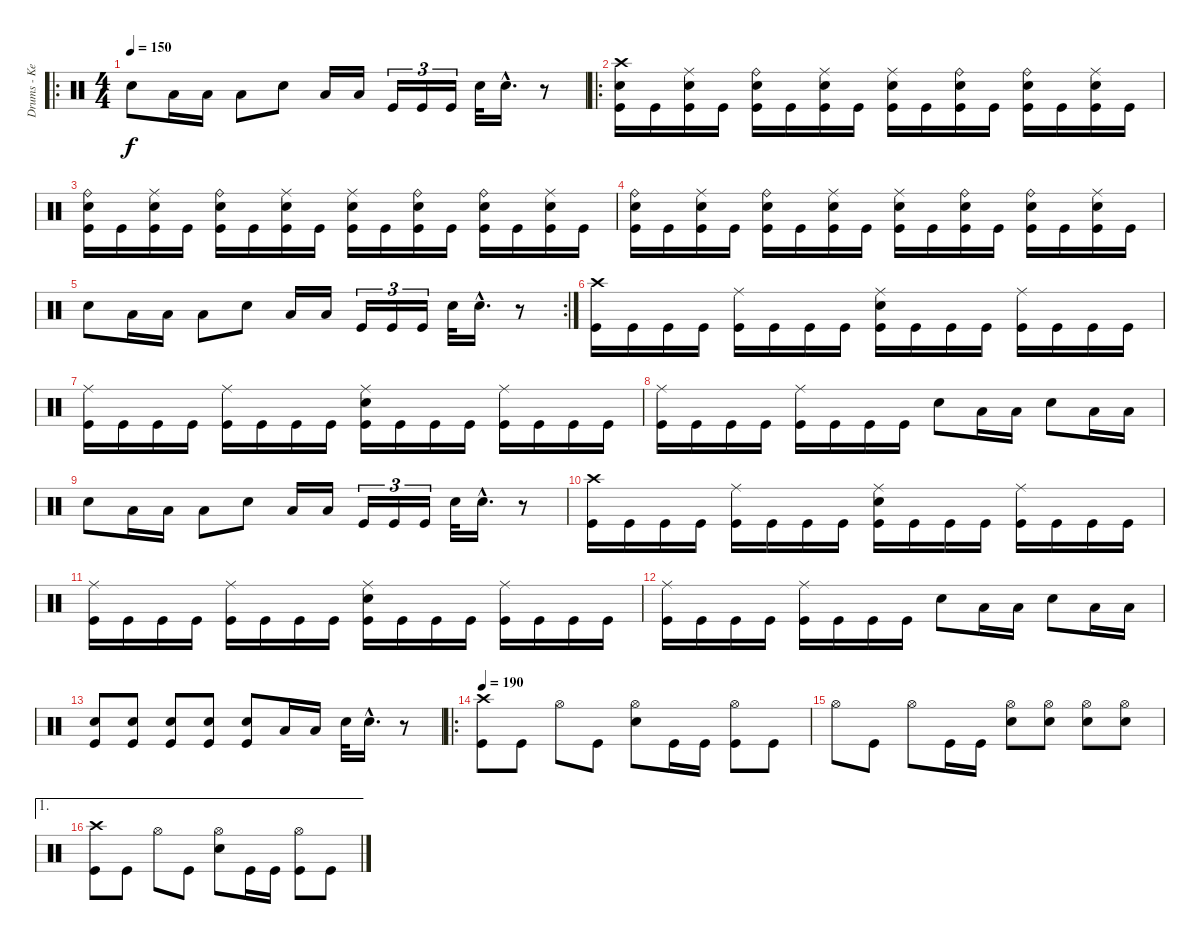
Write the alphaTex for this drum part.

\track ("Drums - Kevin" "Drums - Ke") {instrument percussion}
\staff {score}
\articulation defaults
\ro
\ts (4 4)
\tempo 150
\tempo 200
\tempo 150
\clef neutral
\ks c "Electric Snare (hit)".8{dy f} "Low Tom (hit)".16 "Low Tom (hit)".16 "Low Tom (hit)".8 "Electric Snare (hit)".8 "Low Tom (hit)".16 "Low Tom (hit)".16 "Kick (hit)".16{tu (3 2)} "Kick (hit)".16{tu (3 2)} "Kick (hit)".16{tu (3 2)} "Electric Snare (hit)".32 "Electric Snare (hit)"{hac}.16{d}
r.8 |
\ro
("Crash high (hit)" "Electric Snare (hit)" "Kick (hit)").16 "Kick (hit)".16 ("Ride (middle)" "Electric Snare (hit)" "Kick (hit)").16 "Kick (hit)".16 ("Ride (bell)" "Electric Snare (hit)" "Kick (hit)").16 "Kick (hit)".16 ("Ride (middle)" "Electric Snare (hit)" "Kick (hit)").16 "Kick (hit)".16 ("Ride (middle)" "Electric Snare (hit)" "Kick (hit)").16 "Kick (hit)".16 ("Ride (bell)" "Electric Snare (hit)" "Kick (hit)").16 "Kick (hit)".16 ("Ride (bell)" "Electric Snare (hit)" "Kick (hit)").16 "Kick (hit)".16 ("Ride (middle)" "Electric Snare (hit)" "Kick (hit)").16 "Kick (hit)".16 |
("Ride (bell)" "Electric Snare (hit)" "Kick (hit)").16 "Kick (hit)".16 ("Ride (middle)" "Electric Snare (hit)" "Kick (hit)").16 "Kick (hit)".16 ("Ride (bell)" "Electric Snare (hit)" "Kick (hit)").16 "Kick (hit)".16 ("Ride (middle)" "Electric Snare (hit)" "Kick (hit)").16 "Kick (hit)".16 ("Ride (middle)" "Electric Snare (hit)" "Kick (hit)").16 "Kick (hit)".16 ("Ride (bell)" "Electric Snare (hit)" "Kick (hit)").16 "Kick (hit)".16 ("Ride (bell)" "Electric Snare (hit)" "Kick (hit)").16 "Kick (hit)".16 ("Ride (middle)" "Electric Snare (hit)" "Kick (hit)").16 "Kick (hit)".16 |
("Ride (bell)" "Electric Snare (hit)" "Kick (hit)").16 "Kick (hit)".16 ("Ride (middle)" "Electric Snare (hit)" "Kick (hit)").16 "Kick (hit)".16 ("Ride (bell)" "Electric Snare (hit)" "Kick (hit)").16 "Kick (hit)".16 ("Ride (middle)" "Electric Snare (hit)" "Kick (hit)").16 "Kick (hit)".16 ("Ride (middle)" "Electric Snare (hit)" "Kick (hit)").16 "Kick (hit)".16 ("Ride (bell)" "Electric Snare (hit)" "Kick (hit)").16 "Kick (hit)".16 ("Ride (bell)" "Electric Snare (hit)" "Kick (hit)").16 "Kick (hit)".16 ("Ride (middle)" "Electric Snare (hit)" "Kick (hit)").16 "Kick (hit)".16 |
\rc 2 "Electric Snare (hit)".8 "Low Tom (hit)".16 "Low Tom (hit)".16 "Low Tom (hit)".8 "Electric Snare (hit)".8 "Low Tom (hit)".16 "Low Tom (hit)".16 "Kick (hit)".16{tu (3 2)} "Kick (hit)".16{tu (3 2)} "Kick (hit)".16{tu (3 2)} "Electric Snare (hit)".32 "Electric Snare (hit)"{hac}.16{d}
r.8 |
("Crash high (hit)" "Kick (hit)").16 "Kick (hit)".16 "Kick (hit)".16 "Kick (hit)".16 ("Ride (middle)" "Kick (hit)").16 "Kick (hit)".16 "Kick (hit)".16 "Kick (hit)".16 ("Ride (middle)" "Electric Snare (hit)" "Kick (hit)").16 "Kick (hit)".16 "Kick (hit)".16 "Kick (hit)".16 ("Ride (middle)" "Kick (hit)").16 "Kick (hit)".16 "Kick (hit)".16 "Kick (hit)".16 |
("Ride (middle)" "Kick (hit)").16 "Kick (hit)".16 "Kick (hit)".16 "Kick (hit)".16 ("Ride (middle)" "Kick (hit)").16 "Kick (hit)".16 "Kick (hit)".16 "Kick (hit)".16 ("Ride (middle)" "Electric Snare (hit)" "Kick (hit)").16 "Kick (hit)".16 "Kick (hit)".16 "Kick (hit)".16 ("Ride (middle)" "Kick (hit)").16 "Kick (hit)".16 "Kick (hit)".16 "Kick (hit)".16 |
("Ride (middle)" "Kick (hit)").16 "Kick (hit)".16 "Kick (hit)".16 "Kick (hit)".16 ("Ride (middle)" "Kick (hit)").16 "Kick (hit)".16 "Kick (hit)".16 "Kick (hit)".16 "Electric Snare (hit)".8 "Low Tom (hit)".16 "Low Tom (hit)".16 "Electric Snare (hit)".8 "Low Tom (hit)".16 "Low Tom (hit)".16 |
"Electric Snare (hit)".8 "Low Tom (hit)".16 "Low Tom (hit)".16 "Low Tom (hit)".8 "Electric Snare (hit)".8 "Low Tom (hit)".16 "Low Tom (hit)".16 "Kick (hit)".16{tu (3 2)} "Kick (hit)".16{tu (3 2)} "Kick (hit)".16{tu (3 2)} "Electric Snare (hit)".32 "Electric Snare (hit)"{hac}.16{d} r.8 |
("Crash high (hit)" "Kick (hit)").16 "Kick (hit)".16 "Kick (hit)".16 "Kick (hit)".16 ("Ride (middle)" "Kick (hit)").16 "Kick (hit)".16 "Kick (hit)".16 "Kick (hit)".16 ("Ride (middle)" "Electric Snare (hit)" "Kick (hit)").16 "Kick (hit)".16 "Kick (hit)".16 "Kick (hit)".16 ("Ride (middle)" "Kick (hit)").16 "Kick (hit)".16 "Kick (hit)".16 "Kick (hit)".16 |
("Ride (middle)" "Kick (hit)").16 "Kick (hit)".16 "Kick (hit)".16 "Kick (hit)".16 ("Ride (middle)" "Kick (hit)").16 "Kick (hit)".16 "Kick (hit)".16 "Kick (hit)".16 ("Ride (middle)" "Electric Snare (hit)" "Kick (hit)").16 "Kick (hit)".16 "Kick (hit)".16 "Kick (hit)".16 ("Ride (middle)" "Kick (hit)").16 "Kick (hit)".16 "Kick (hit)".16 "Kick (hit)".16 |
("Ride (middle)" "Kick (hit)").16 "Kick (hit)".16 "Kick (hit)".16 "Kick (hit)".16 ("Ride (middle)" "Kick (hit)").16 "Kick (hit)".16 "Kick (hit)".16 "Kick (hit)".16 "Electric Snare (hit)".8 "Low Tom (hit)".16 "Low Tom (hit)".16 "Electric Snare (hit)".8 "Low Tom (hit)".16 "Low Tom (hit)".16 |
("Electric Snare (hit)" "Kick (hit)").8 ("Electric Snare (hit)" "Kick (hit)").8 ("Electric Snare (hit)" "Kick (hit)").8 ("Electric Snare (hit)" "Kick (hit)").8 ("Electric Snare (hit)" "Kick (hit)").8 "Low Tom (hit)".16 "Low Tom (hit)".16 "Electric Snare (hit)".32 "Electric Snare (hit)"{hac}.16{d} r.8 |
\ro
\tempo 190
("Crash high (hit)" "Kick (hit)").8 "Kick (hit)".8 "Hi-Hat (open)".8 "Kick (hit)".8 ("Hi-Hat (open)" "Electric Snare (hit)").8 "Kick (hit)".16 "Kick (hit)".16 ("Hi-Hat (open)" "Kick (hit)").8 "Kick (hit)".8 |
"Hi-Hat (open)".8 "Kick (hit)".8 "Hi-Hat (open)".8 "Kick (hit)".16 "Kick (hit)".16 ("Hi-Hat (open)" "Electric Snare (hit)").8 ("Hi-Hat (open)" "Electric Snare (hit)").8 ("Hi-Hat (open)" "Electric Snare (hit)").8 ("Hi-Hat (open)" "Electric Snare (hit)").8 |
\ae 1
("Crash high (hit)" "Kick (hit)").8 "Kick (hit)".8 "Hi-Hat (open)".8 "Kick (hit)".8 ("Hi-Hat (open)" "Electric Snare (hit)").8 "Kick (hit)".16 "Kick (hit)".16 ("Hi-Hat (open)" "Kick (hit)").8 "Kick (hit)".8
